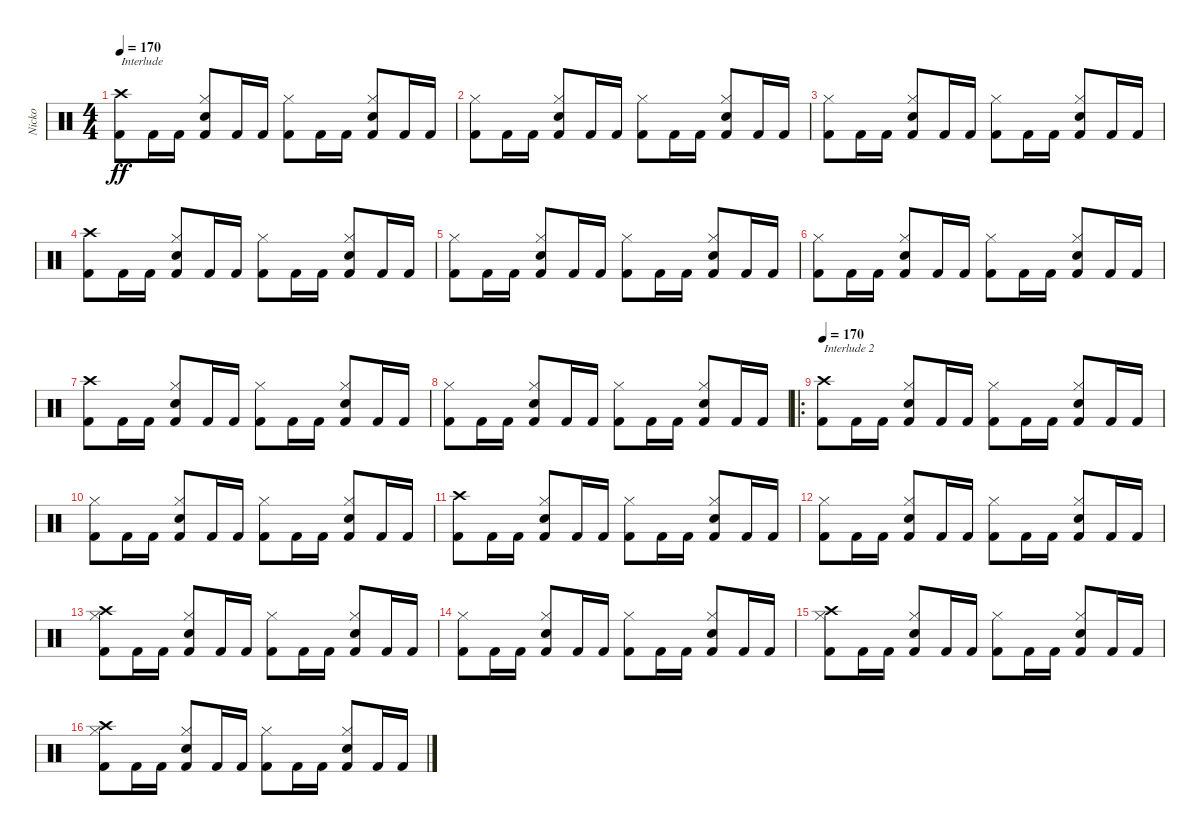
\track ("Nicko" "Nicko") {instrument percussion}
\staff {score}
\articulation defaults
\ts (4 4)
\tempo 170
\clef neutral
\ks c
("Crash high (hit)" "Kick (hit) 2").8{txt "Interlude" dy ff} "Kick (hit) 2".16 "Kick (hit) 2".16 ("Hi-Hat (closed)" "Snare (hit) 2" "Kick (hit) 2").8 "Kick (hit) 2".16 "Kick (hit) 2".16 ("Hi-Hat (closed)" "Kick (hit) 2").8 "Kick (hit) 2".16 "Kick (hit) 2".16 ("Hi-Hat (closed)" "Snare (hit) 2" "Kick (hit) 2").8 "Kick (hit) 2".16 "Kick (hit) 2".16 |
("Hi-Hat (closed)" "Kick (hit) 2").8 "Kick (hit) 2".16 "Kick (hit) 2".16 ("Hi-Hat (closed)" "Snare (hit) 2" "Kick (hit) 2").8 "Kick (hit) 2".16 "Kick (hit) 2".16 ("Hi-Hat (closed)" "Kick (hit) 2").8 "Kick (hit) 2".16 "Kick (hit) 2".16 ("Hi-Hat (closed)" "Snare (hit) 2" "Kick (hit) 2").8 "Kick (hit) 2".16 "Kick (hit) 2".16 |
("Hi-Hat (closed)" "Kick (hit) 2").8 "Kick (hit) 2".16 "Kick (hit) 2".16 ("Hi-Hat (closed)" "Snare (hit) 2" "Kick (hit) 2").8 "Kick (hit) 2".16 "Kick (hit) 2".16 ("Hi-Hat (closed)" "Kick (hit) 2").8 "Kick (hit) 2".16 "Kick (hit) 2".16 ("Hi-Hat (closed)" "Snare (hit) 2" "Kick (hit) 2").8 "Kick (hit) 2".16 "Kick (hit) 2".16 |
("Crash high (hit)" "Kick (hit) 2").8 "Kick (hit) 2".16 "Kick (hit) 2".16 ("Hi-Hat (closed)" "Snare (hit) 2" "Kick (hit) 2").8 "Kick (hit) 2".16 "Kick (hit) 2".16 ("Hi-Hat (closed)" "Kick (hit) 2").8 "Kick (hit) 2".16 "Kick (hit) 2".16 ("Hi-Hat (closed)" "Snare (hit) 2" "Kick (hit) 2").8 "Kick (hit) 2".16 "Kick (hit) 2".16 |
("Hi-Hat (closed)" "Kick (hit) 2").8 "Kick (hit) 2".16 "Kick (hit) 2".16 ("Hi-Hat (closed)" "Snare (hit) 2" "Kick (hit) 2").8 "Kick (hit) 2".16 "Kick (hit) 2".16 ("Hi-Hat (closed)" "Kick (hit) 2").8 "Kick (hit) 2".16 "Kick (hit) 2".16 ("Hi-Hat (closed)" "Snare (hit) 2" "Kick (hit) 2").8 "Kick (hit) 2".16 "Kick (hit) 2".16 |
("Hi-Hat (closed)" "Kick (hit) 2").8 "Kick (hit) 2".16 "Kick (hit) 2".16 ("Hi-Hat (closed)" "Snare (hit) 2" "Kick (hit) 2").8 "Kick (hit) 2".16 "Kick (hit) 2".16 ("Hi-Hat (closed)" "Kick (hit) 2").8 "Kick (hit) 2".16 "Kick (hit) 2".16 ("Hi-Hat (closed)" "Snare (hit) 2" "Kick (hit) 2").8 "Kick (hit) 2".16 "Kick (hit) 2".16 |
("Crash high (hit)" "Kick (hit) 2").8 "Kick (hit) 2".16 "Kick (hit) 2".16 ("Hi-Hat (closed)" "Snare (hit) 2" "Kick (hit) 2").8 "Kick (hit) 2".16 "Kick (hit) 2".16 ("Hi-Hat (closed)" "Kick (hit) 2").8 "Kick (hit) 2".16 "Kick (hit) 2".16 ("Hi-Hat (closed)" "Snare (hit) 2" "Kick (hit) 2").8 "Kick (hit) 2".16 "Kick (hit) 2".16 |
("Hi-Hat (closed)" "Kick (hit) 2").8 "Kick (hit) 2".16 "Kick (hit) 2".16 ("Hi-Hat (closed)" "Snare (hit) 2" "Kick (hit) 2").8 "Kick (hit) 2".16 "Kick (hit) 2".16 ("Hi-Hat (closed)" "Kick (hit) 2").8 "Kick (hit) 2".16 "Kick (hit) 2".16 ("Hi-Hat (closed)" "Snare (hit) 2" "Kick (hit) 2").8 "Kick (hit) 2".16 "Kick (hit) 2".16 |
\ro
\tempo 170
("Crash high (hit)" "Kick (hit) 2").8{txt "Interlude 2"} "Kick (hit) 2".16 "Kick (hit) 2".16 ("Hi-Hat (closed)" "Snare (hit) 2" "Kick (hit) 2").8 "Kick (hit) 2".16 "Kick (hit) 2".16 ("Hi-Hat (closed)" "Kick (hit) 2").8 "Kick (hit) 2".16 "Kick (hit) 2".16 ("Hi-Hat (closed)" "Snare (hit) 2" "Kick (hit) 2").8 "Kick (hit) 2".16 "Kick (hit) 2".16 |
("Hi-Hat (closed)" "Kick (hit) 2").8 "Kick (hit) 2".16 "Kick (hit) 2".16 ("Hi-Hat (closed)" "Snare (hit) 2" "Kick (hit) 2").8 "Kick (hit) 2".16 "Kick (hit) 2".16 ("Hi-Hat (closed)" "Kick (hit) 2").8 "Kick (hit) 2".16 "Kick (hit) 2".16 ("Hi-Hat (closed)" "Snare (hit) 2" "Kick (hit) 2").8 "Kick (hit) 2".16 "Kick (hit) 2".16 |
("Crash high (hit)" "Kick (hit) 2").8 "Kick (hit) 2".16 "Kick (hit) 2".16 ("Hi-Hat (closed)" "Snare (hit) 2" "Kick (hit) 2").8 "Kick (hit) 2".16 "Kick (hit) 2".16 ("Hi-Hat (closed)" "Kick (hit) 2").8 "Kick (hit) 2".16 "Kick (hit) 2".16 ("Hi-Hat (closed)" "Snare (hit) 2" "Kick (hit) 2").8 "Kick (hit) 2".16 "Kick (hit) 2".16 |
("Hi-Hat (closed)" "Kick (hit) 2").8 "Kick (hit) 2".16 "Kick (hit) 2".16 ("Hi-Hat (closed)" "Snare (hit) 2" "Kick (hit) 2").8 "Kick (hit) 2".16 "Kick (hit) 2".16 ("Hi-Hat (closed)" "Kick (hit) 2").8 "Kick (hit) 2".16 "Kick (hit) 2".16 ("Hi-Hat (closed)" "Snare (hit) 2" "Kick (hit) 2").8 "Kick (hit) 2".16 "Kick (hit) 2".16 |
("Crash high (hit)" "Hi-Hat (closed)" "Kick (hit) 2").8 "Kick (hit) 2".16 "Kick (hit) 2".16 ("Hi-Hat (closed)" "Snare (hit) 2" "Kick (hit) 2").8 "Kick (hit) 2".16 "Kick (hit) 2".16 ("Hi-Hat (closed)" "Kick (hit) 2").8 "Kick (hit) 2".16 "Kick (hit) 2".16 ("Hi-Hat (closed)" "Snare (hit) 2" "Kick (hit) 2").8 "Kick (hit) 2".16 "Kick (hit) 2".16 |
("Hi-Hat (closed)" "Kick (hit) 2").8 "Kick (hit) 2".16 "Kick (hit) 2".16 ("Hi-Hat (closed)" "Snare (hit) 2" "Kick (hit) 2").8 "Kick (hit) 2".16 "Kick (hit) 2".16 ("Hi-Hat (closed)" "Kick (hit) 2").8 "Kick (hit) 2".16 "Kick (hit) 2".16 ("Hi-Hat (closed)" "Snare (hit) 2" "Kick (hit) 2").8 "Kick (hit) 2".16 "Kick (hit) 2".16 |
("Crash high (hit)" "Hi-Hat (closed)" "Kick (hit) 2").8 "Kick (hit) 2".16 "Kick (hit) 2".16 ("Hi-Hat (closed)" "Snare (hit) 2" "Kick (hit) 2").8 "Kick (hit) 2".16 "Kick (hit) 2".16 ("Hi-Hat (closed)" "Kick (hit) 2").8 "Kick (hit) 2".16 "Kick (hit) 2".16 ("Hi-Hat (closed)" "Snare (hit) 2" "Kick (hit) 2").8 "Kick (hit) 2".16 "Kick (hit) 2".16 |
("Crash high (hit)" "Hi-Hat (closed)" "Kick (hit) 2").8 "Kick (hit) 2".16 "Kick (hit) 2".16 ("Hi-Hat (closed)" "Snare (hit) 2" "Kick (hit) 2").8 "Kick (hit) 2".16 "Kick (hit) 2".16 ("Hi-Hat (closed)" "Kick (hit) 2").8 "Kick (hit) 2".16 "Kick (hit) 2".16 ("Hi-Hat (closed)" "Snare (hit) 2" "Kick (hit) 2").8 "Kick (hit) 2".16 "Kick (hit) 2".16
